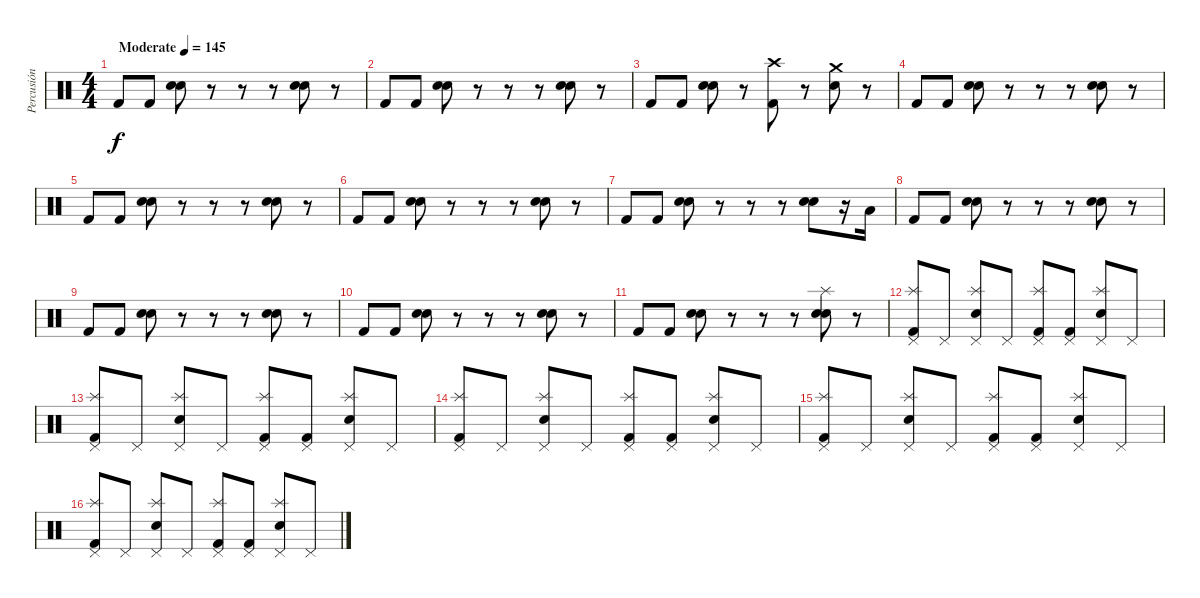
\track ("Percusión" "Percusión") {instrument percussion}
\staff {score}
\articulation defaults
\ts (4 4)
\tempo (145 "Moderate")
\clef neutral
\ks c "Kick (hit) 2".8{dy f} "Kick (hit) 2".8
("Electric Snare (hit)" "Electric Snare (hit)").8{bd 60} r.8 r.8 r.8 ("Electric Snare (hit)" "Electric Snare (hit)").8{bd 60} r.8 |
"Kick (hit) 2".8 "Kick (hit) 2".8 ("Electric Snare (hit)" "Electric Snare (hit)").8{bd 60} r.8 r.8 r.8 ("Electric Snare (hit)" "Electric Snare (hit)").8{bd 60} r.8 |
"Kick (hit) 2".8 "Kick (hit) 2".8 ("Electric Snare (hit)" "Electric Snare (hit)").8{bd 60} r.8 ("Crash high (hit)" "Kick (hit) 2").8 r.8 ("Crash medium (hit)" "Electric Snare (hit)").8 r.8 |
"Kick (hit) 2".8 "Kick (hit) 2".8 ("Electric Snare (hit)" "Electric Snare (hit)").8{bd 60} r.8 r.8 r.8 ("Electric Snare (hit)" "Electric Snare (hit)").8{bd 60} r.8 |
"Kick (hit) 2".8 "Kick (hit) 2".8 ("Electric Snare (hit)" "Electric Snare (hit)").8{bd 60} r.8 r.8 r.8 ("Electric Snare (hit)" "Electric Snare (hit)").8{bd 60} r.8 |
"Kick (hit) 2".8 "Kick (hit) 2".8 ("Electric Snare (hit)" "Electric Snare (hit)").8{bd 60} r.8 r.8 r.8 ("Electric Snare (hit)" "Electric Snare (hit)").8{bd 60} r.8 |
"Kick (hit) 2".8 "Kick (hit) 2".8 ("Electric Snare (hit)" "Electric Snare (hit)").8{bd 60} r.8 r.8 r.8 ("Electric Snare (hit)" "Electric Snare (hit)").8{bd 60} r.16 "Low Tom (hit)".16 |
"Kick (hit) 2".8 "Kick (hit) 2".8 ("Electric Snare (hit)" "Electric Snare (hit)").8{bd 60} r.8 r.8 r.8 ("Electric Snare (hit)" "Electric Snare (hit)").8{bd 60} r.8 |
"Kick (hit) 2".8 "Kick (hit) 2".8 ("Electric Snare (hit)" "Electric Snare (hit)").8{bd 60} r.8 r.8 r.8 ("Electric Snare (hit)" "Electric Snare (hit)").8{bd 60} r.8 |
"Kick (hit) 2".8 "Kick (hit) 2".8 ("Electric Snare (hit)" "Electric Snare (hit)").8{bd 60} r.8 r.8 r.8 ("Electric Snare (hit)" "Electric Snare (hit)").8{bd 60} r.8 |
"Kick (hit) 2".8 "Kick (hit) 2".8 ("Electric Snare (hit)" "Electric Snare (hit)").8{bd 60} r.8 r.8 r.8 ("Splash (hit)" "Electric Snare (hit)" "Electric Snare (hit)").8{bd 60} r.8 |
("Splash (hit)" "Pedal Hi-Hat (hit)" "Kick (hit) 2").8 "Pedal Hi-Hat (hit)".8 ("Splash (hit)" "Pedal Hi-Hat (hit)" "Electric Snare (hit)").8 "Pedal Hi-Hat (hit)".8 ("Splash (hit)" "Pedal Hi-Hat (hit)" "Kick (hit) 2").8 ("Pedal Hi-Hat (hit)" "Kick (hit) 2").8 ("Splash (hit)" "Pedal Hi-Hat (hit)" "Electric Snare (hit)").8 "Pedal Hi-Hat (hit)".8 |
("Splash (hit)" "Pedal Hi-Hat (hit)" "Kick (hit) 2").8 "Pedal Hi-Hat (hit)".8 ("Splash (hit)" "Pedal Hi-Hat (hit)" "Electric Snare (hit)").8 "Pedal Hi-Hat (hit)".8 ("Splash (hit)" "Pedal Hi-Hat (hit)" "Kick (hit) 2").8 ("Pedal Hi-Hat (hit)" "Kick (hit) 2").8 ("Splash (hit)" "Pedal Hi-Hat (hit)" "Electric Snare (hit)").8 "Pedal Hi-Hat (hit)".8 |
("Splash (hit)" "Pedal Hi-Hat (hit)" "Kick (hit) 2").8 "Pedal Hi-Hat (hit)".8 ("Splash (hit)" "Pedal Hi-Hat (hit)" "Electric Snare (hit)").8 "Pedal Hi-Hat (hit)".8 ("Splash (hit)" "Pedal Hi-Hat (hit)" "Kick (hit) 2").8 ("Pedal Hi-Hat (hit)" "Kick (hit) 2").8 ("Splash (hit)" "Pedal Hi-Hat (hit)" "Electric Snare (hit)").8 "Pedal Hi-Hat (hit)".8 |
("Splash (hit)" "Pedal Hi-Hat (hit)" "Kick (hit) 2").8 "Pedal Hi-Hat (hit)".8 ("Splash (hit)" "Pedal Hi-Hat (hit)" "Electric Snare (hit)").8 "Pedal Hi-Hat (hit)".8 ("Splash (hit)" "Pedal Hi-Hat (hit)" "Kick (hit) 2").8 ("Pedal Hi-Hat (hit)" "Kick (hit) 2").8 ("Splash (hit)" "Pedal Hi-Hat (hit)" "Electric Snare (hit)").8 "Pedal Hi-Hat (hit)".8 |
("Splash (hit)" "Pedal Hi-Hat (hit)" "Kick (hit) 2").8 "Pedal Hi-Hat (hit)".8 ("Splash (hit)" "Pedal Hi-Hat (hit)" "Electric Snare (hit)").8 "Pedal Hi-Hat (hit)".8 ("Splash (hit)" "Pedal Hi-Hat (hit)" "Kick (hit) 2").8 ("Pedal Hi-Hat (hit)" "Kick (hit) 2").8 ("Splash (hit)" "Pedal Hi-Hat (hit)" "Electric Snare (hit)").8 "Pedal Hi-Hat (hit)".8
